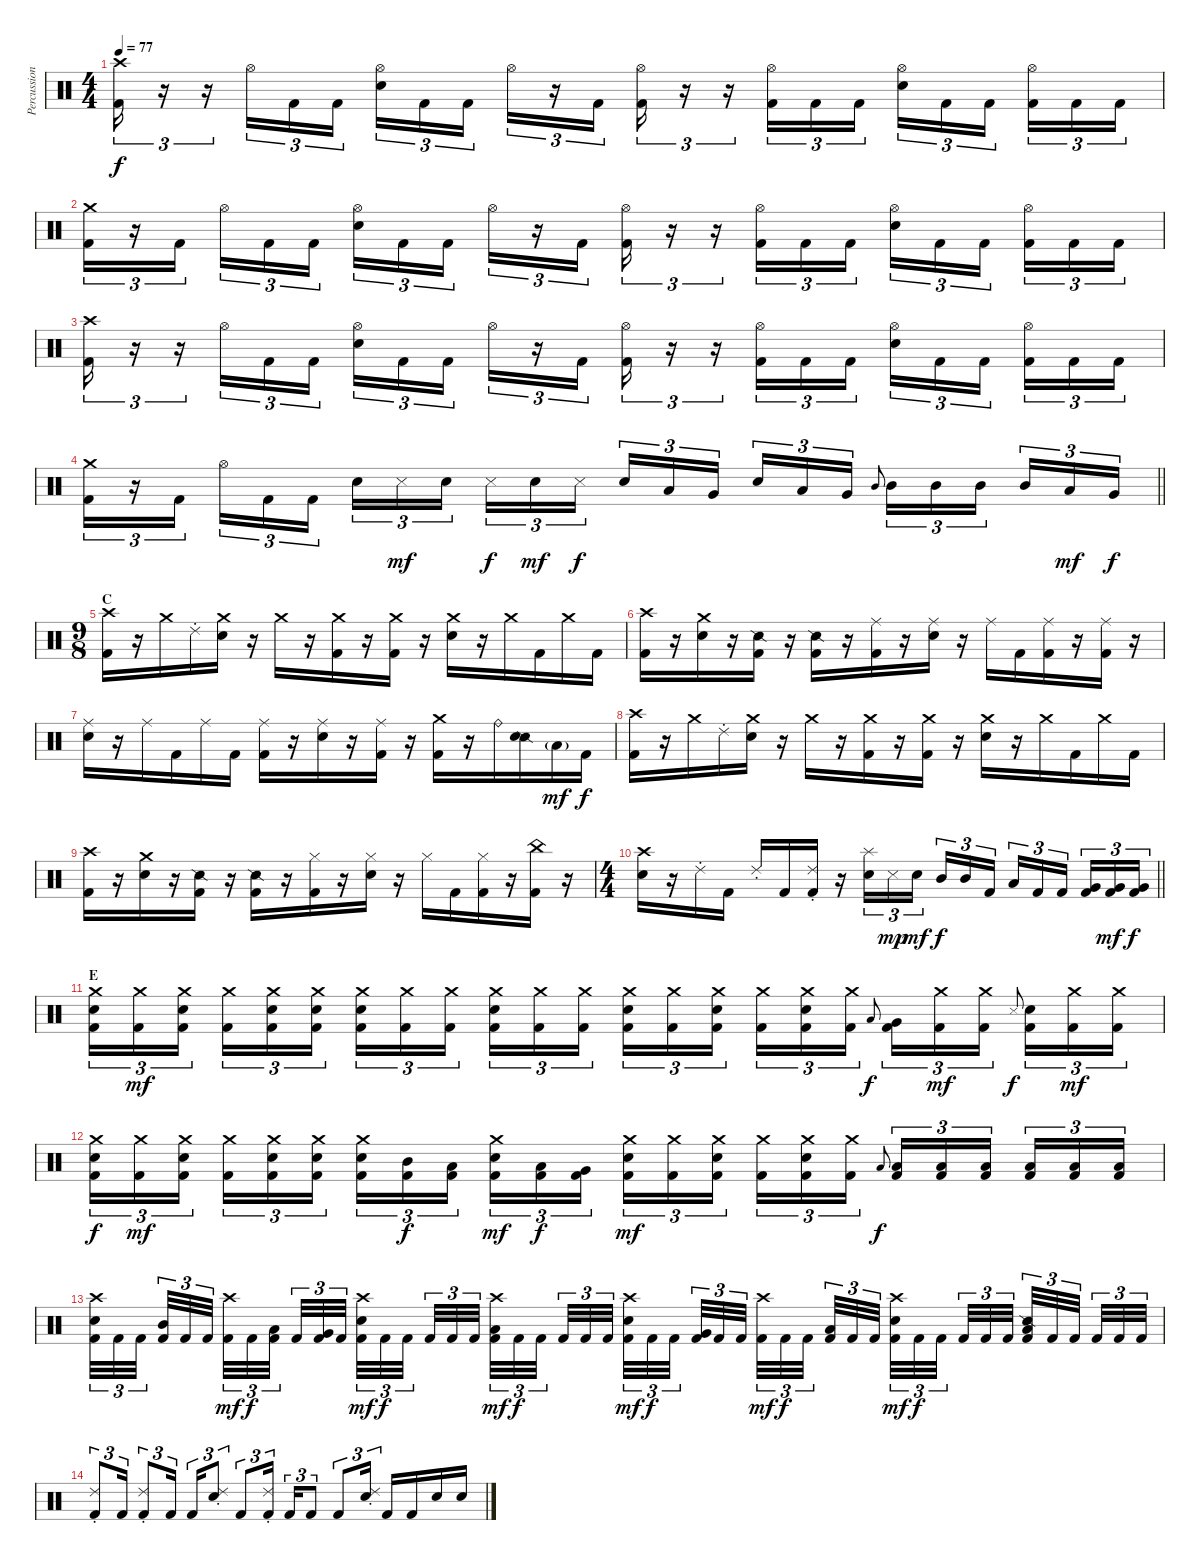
\track ("Percussion" "Percussion") {instrument percussion}
\staff {score}
\articulation defaults
\ts (4 4)
\tempo 77
\clef neutral
\ks c
("Crash high (hit)" "Kick (hit) 2").16{tu (3 2) dy f} r.16{tu (3 2)} r.16{tu (3 2)} "Hi-Hat (open)".16{tu (3 2)} "Kick (hit) 2".16{tu (3 2)} "Kick (hit) 2".16{tu (3 2)} ("Hi-Hat (open)" "Snare (hit) 2").16{tu (3 2)} "Kick (hit) 2".16{tu (3 2)} "Kick (hit) 2".16{tu (3 2) beam splitsecondary} "Hi-Hat (open)".16{tu (3 2)} r.16{tu (3 2)} "Kick (hit) 2".16{tu (3 2)} ("Hi-Hat (open)" "Kick (hit) 2").16{tu (3 2)} r.16{tu (3 2)} r.16{tu (3 2)} ("Hi-Hat (open)" "Kick (hit) 2").16{tu (3 2)} "Kick (hit) 2".16{tu (3 2)} "Kick (hit) 2".16{tu (3 2)} ("Hi-Hat (open)" "Snare (hit) 2").16{tu (3 2)} "Kick (hit) 2".16{tu (3 2)} "Kick (hit) 2".16{tu (3 2) beam splitsecondary} ("Hi-Hat (open)" "Kick (hit) 2").16{tu (3 2)} "Kick (hit) 2".16{tu (3 2)} "Kick (hit) 2".16{tu (3 2)} |
("Crash medium (hit)" "Kick (hit) 2").16{tu (3 2)} r.16{tu (3 2)} "Kick (hit) 2".16{tu (3 2) beam splitsecondary} "Hi-Hat (open)".16{tu (3 2)} "Kick (hit) 2".16{tu (3 2)} "Kick (hit) 2".16{tu (3 2)} ("Hi-Hat (open)" "Snare (hit) 2").16{tu (3 2)} "Kick (hit) 2".16{tu (3 2)} "Kick (hit) 2".16{tu (3 2) beam splitsecondary} "Hi-Hat (open)".16{tu (3 2)} r.16{tu (3 2)} "Kick (hit) 2".16{tu (3 2)} ("Hi-Hat (open)" "Kick (hit) 2").16{tu (3 2)} r.16{tu (3 2)} r.16{tu (3 2)} ("Hi-Hat (open)" "Kick (hit) 2").16{tu (3 2)} "Kick (hit) 2".16{tu (3 2)} "Kick (hit) 2".16{tu (3 2)} ("Hi-Hat (open)" "Snare (hit) 2").16{tu (3 2)} "Kick (hit) 2".16{tu (3 2)} "Kick (hit) 2".16{tu (3 2) beam splitsecondary} ("Hi-Hat (open)" "Kick (hit) 2").16{tu (3 2)} "Kick (hit) 2".16{tu (3 2)} "Kick (hit) 2".16{tu (3 2)} |
("Crash high (hit)" "Kick (hit) 2").16{tu (3 2)} r.16{tu (3 2)} r.16{tu (3 2)} "Hi-Hat (open)".16{tu (3 2)} "Kick (hit) 2".16{tu (3 2)} "Kick (hit) 2".16{tu (3 2)} ("Hi-Hat (open)" "Snare (hit) 2").16{tu (3 2)} "Kick (hit) 2".16{tu (3 2)} "Kick (hit) 2".16{tu (3 2) beam splitsecondary} "Hi-Hat (open)".16{tu (3 2)} r.16{tu (3 2)} "Kick (hit) 2".16{tu (3 2)} ("Hi-Hat (open)" "Kick (hit) 2").16{tu (3 2)} r.16{tu (3 2)} r.16{tu (3 2)} ("Hi-Hat (open)" "Kick (hit) 2").16{tu (3 2)} "Kick (hit) 2".16{tu (3 2)} "Kick (hit) 2".16{tu (3 2)} ("Hi-Hat (open)" "Snare (hit) 2").16{tu (3 2)} "Kick (hit) 2".16{tu (3 2)} "Kick (hit) 2".16{tu (3 2) beam splitsecondary} ("Hi-Hat (open)" "Kick (hit) 2").16{tu (3 2)} "Kick (hit) 2".16{tu (3 2)} "Kick (hit) 2".16{tu (3 2)} |
\barLineRight lightlight
("Crash medium (hit)" "Kick (hit) 2").16{tu (3 2)} r.16{tu (3 2)} "Kick (hit) 2".16{tu (3 2) beam splitsecondary} "Hi-Hat (open)".16{tu (3 2)} "Kick (hit) 2".16{tu (3 2)} "Kick (hit) 2".16{tu (3 2)} "Snare (hit) 2".16{tu (3 2)} "Metronome (hit)".16{tu (3 2) dy mf} "Snare (hit) 2".16{tu (3 2) beam splitsecondary} "Metronome (hit)".16{tu (3 2) dy f} "Snare (hit) 2".16{tu (3 2) dy mf} "Metronome (hit)".16{tu (3 2) dy f} "Snare (hit) 2".16{tu (3 2)} "Low Tom (hit)".16{tu (3 2)} "Very Low Tom (hit)".16{tu (3 2) beam splitsecondary} "Snare (hit) 2".16{tu (3 2)} "Low Tom (hit)".16{tu (3 2)} "Very Low Tom (hit)".16{tu (3 2)} "Mid Tom (hit)".8{gr onbeat} "Mid Tom (hit)".16{tu (3 2)} "Mid Tom (hit)".16{tu (3 2)} "Mid Tom (hit)".16{tu (3 2) beam splitsecondary} "Mid Tom (hit)".16{tu (3 2)} "Low Tom (hit)".16{tu (3 2) dy mf} "Very Low Tom (hit)".16{tu (3 2) dy f} |
\ts (9 8)
\section ("" "C")
("Crash high (hit)" "Kick (hit) 2").16 r.16 "Crash medium (hit)".16 "Ride (choke) 2".16 ("Crash medium (hit)" "Snare (hit) 2").16 r.16 "Crash medium (hit)".16 r.16 ("Crash medium (hit)" "Kick (hit) 2").16 r.16 ("Crash medium (hit)" "Kick (hit) 2").16 r.16 ("Crash medium (hit)" "Snare (hit) 2").16 r.16 "Crash medium (hit)".16 "Kick (hit) 2".16 "Crash medium (hit)".16 "Kick (hit) 2".16 |
("Crash high (hit)" "Kick (hit) 2").16 r.16 ("Crash medium (hit)" "Snare (hit) 2").16 r.16 ("Snare (side stick) 2" "Kick (hit) 2").16 r.16 ("Snare (side stick) 2" "Kick (hit) 2").16 r.16 ("Ride (middle)" "Kick (hit) 2").16 r.16 ("Ride (middle)" "Snare (hit) 2").16 r.16 "Ride (middle)".16 "Kick (hit) 2".16 ("Ride (middle)" "Kick (hit) 2").16 r.16 ("Ride (middle)" "Kick (hit) 2").16 r.16 |
("Ride (middle)" "Snare (hit) 2").16 r.16 "Ride (middle)".16 "Kick (hit) 2".16 "Ride (middle)".16 "Kick (hit) 2".16 ("Ride (middle)" "Kick (hit) 2").16 r.16 ("Ride (middle)" "Snare (hit) 2").16 r.16 ("Ride (middle)" "Kick (hit) 2").16 r.16 ("Crash medium (hit)" "Kick (hit) 2").16 r.16 "Ride (bell)".16 ("Snare (side stick) 2" "Snare (hit) 2").16 "Low Tom (hit)"{g}.16{dy mf} "Kick (hit) 2".16{dy f} |
("Crash high (hit)" "Kick (hit) 2").16 r.16 "Crash medium (hit)".16 "Ride (choke) 2".16 ("Crash medium (hit)" "Snare (hit) 2").16 r.16 "Crash medium (hit)".16 r.16 ("Crash medium (hit)" "Kick (hit) 2").16 r.16 ("Crash medium (hit)" "Kick (hit) 2").16 r.16 ("Crash medium (hit)" "Snare (hit) 2").16 r.16 "Crash medium (hit)".16 "Kick (hit) 2".16 "Crash medium (hit)".16 "Kick (hit) 2".16 |
("Crash high (hit)" "Kick (hit) 2").16 r.16 ("Crash medium (hit)" "Snare (hit) 2").16 r.16 ("Snare (side stick) 2" "Kick (hit) 2").16 r.16 ("Snare (side stick) 2" "Kick (hit) 2").16 r.16 ("Hi-Hat (closed)" "Kick (hit) 2").16 r.16 ("Hi-Hat (closed)" "Snare (hit) 2").16 r.16 "Hi-Hat (closed)".16 "Kick (hit) 2".16 ("Hi-Hat (closed)" "Kick (hit) 2").16 r.16 ("China (hit)" "Kick (hit) 2").16 r.16 |
\ts (4 4)
\barLineRight lightlight
("Crash high (hit)" "Snare (hit) 2").16 r.16 "Ride (choke) 2".16 "Kick (hit) 2".16 "Ride (choke) 2".16 "Kick (hit) 2".16 ("Ride (choke) 2" "Kick (hit) 2").16 r.16 ("Splash (hit)" "Snare (hit) 2").16{tu (3 2)} "Metronome (hit)".16{tu (3 2) dy mp} "Snare (hit) 2".16{tu (3 2) dy mf beam splitsecondary} "Mid Tom (hit)".16{tu (3 2) dy f} "Mid Tom (hit)".16{tu (3 2)} "Kick (hit) 2".16{tu (3 2)} "Low Tom (hit)".16{tu (3 2)} "Kick (hit) 2".16{tu (3 2)} "Kick (hit) 2".16{tu (3 2) beam splitsecondary} ("Very Low Tom (hit)" "Kick (hit) 2").16{tu (3 2)} ("Very Low Tom (hit)" "Kick (hit) 2").16{tu (3 2) dy mf} ("Very Low Tom (hit)" "Kick (hit) 2").16{tu (3 2) dy f} |
\section ("" "E")
("Crash medium (hit)" "Snare (hit) 2" "Kick (hit) 2").16{tu (3 2)} ("Crash medium (hit)" "Kick (hit) 2").16{tu (3 2) dy mf} ("Crash medium (hit)" "Snare (hit) 2" "Kick (hit) 2").16{tu (3 2) beam splitsecondary} ("Crash medium (hit)" "Kick (hit) 2").16{tu (3 2)} ("Crash medium (hit)" "Snare (hit) 2" "Kick (hit) 2").16{tu (3 2)} ("Crash medium (hit)" "Snare (hit) 2" "Kick (hit) 2").16{tu (3 2)} ("Crash medium (hit)" "Snare (hit) 2" "Kick (hit) 2").16{tu (3 2)} ("Crash medium (hit)" "Kick (hit) 2").16{tu (3 2)} ("Crash medium (hit)" "Kick (hit) 2").16{tu (3 2) beam splitsecondary} ("Crash medium (hit)" "Snare (hit) 2" "Kick (hit) 2").16{tu (3 2)} ("Crash medium (hit)" "Kick (hit) 2").16{tu (3 2)} ("Crash medium (hit)" "Kick (hit) 2").16{tu (3 2)} ("Crash medium (hit)" "Snare (hit) 2" "Kick (hit) 2").16{tu (3 2)} ("Crash medium (hit)" "Kick (hit) 2").16{tu (3 2)} ("Crash medium (hit)" "Snare (hit) 2" "Kick (hit) 2").16{tu (3 2) beam splitsecondary} ("Crash medium (hit)" "Kick (hit) 2").16{tu (3 2)} ("Crash medium (hit)" "Snare (hit) 2" "Kick (hit) 2").16{tu (3 2)} ("Crash medium (hit)" "Kick (hit) 2").16{tu (3 2)} "Low Tom (hit)".8{gr onbeat dy f} ("Very Low Tom (hit)" "Kick (hit) 2").16{tu (3 2)} ("Crash medium (hit)" "Kick (hit) 2").16{tu (3 2) dy mf} ("Crash medium (hit)" "Kick (hit) 2").16{tu (3 2)} "Metronome (hit)".8{gr onbeat dy f beam splitsecondary} ("Snare (hit) 2" "Kick (hit) 2").16{tu (3 2)} ("Crash medium (hit)" "Kick (hit) 2").16{tu (3 2) dy mf} ("Crash medium (hit)" "Kick (hit) 2").16{tu (3 2)} |
("Crash medium (hit)" "Snare (hit) 2" "Kick (hit) 2").16{tu (3 2) dy f} ("Crash medium (hit)" "Kick (hit) 2").16{tu (3 2) dy mf} ("Crash medium (hit)" "Snare (hit) 2" "Kick (hit) 2").16{tu (3 2) beam splitsecondary} ("Crash medium (hit)" "Kick (hit) 2").16{tu (3 2)} ("Crash medium (hit)" "Snare (hit) 2" "Kick (hit) 2").16{tu (3 2)} ("Crash medium (hit)" "Snare (hit) 2" "Kick (hit) 2").16{tu (3 2)} ("Crash medium (hit)" "Snare (hit) 2" "Kick (hit) 2").16{tu (3 2)} ("Mid Tom (hit)" "Kick (hit) 2").16{tu (3 2) dy f} ("Low Tom (hit)" "Kick (hit) 2").16{tu (3 2) beam splitsecondary} ("Crash medium (hit)" "Snare (hit) 2" "Kick (hit) 2").16{tu (3 2) dy mf} ("Low Tom (hit)" "Kick (hit) 2").16{tu (3 2) dy f} ("Very Low Tom (hit)" "Kick (hit) 2").16{tu (3 2)} ("Crash medium (hit)" "Snare (hit) 2" "Kick (hit) 2").16{tu (3 2) dy mf} ("Crash medium (hit)" "Kick (hit) 2").16{tu (3 2)} ("Crash medium (hit)" "Snare (hit) 2" "Kick (hit) 2").16{tu (3 2) beam splitsecondary} ("Crash medium (hit)" "Kick (hit) 2").16{tu (3 2)} ("Crash medium (hit)" "Snare (hit) 2" "Kick (hit) 2").16{tu (3 2)} ("Crash medium (hit)" "Kick (hit) 2").16{tu (3 2)} "Low Tom (hit)".8{gr onbeat dy f} ("Low Tom (hit)" "Kick (hit) 2").16{tu (3 2)} ("Low Tom (hit)" "Kick (hit) 2").16{tu (3 2)} ("Low Tom (hit)" "Kick (hit) 2").16{tu (3 2) beam splitsecondary} ("Low Tom (hit)" "Kick (hit) 2").16{tu (3 2)} ("Low Tom (hit)" "Kick (hit) 2").16{tu (3 2)} ("Low Tom (hit)" "Kick (hit) 2").16{tu (3 2)} |
("Crash high (hit)" "Snare (hit) 2" "Kick (hit) 2").32{tu (3 2)} "Kick (hit) 2".32{tu (3 2)} "Kick (hit) 2".32{tu (3 2) beam splitsecondary} ("Mid Tom (hit)" "Kick (hit) 2").32{tu (3 2)} "Kick (hit) 2".32{tu (3 2)} "Kick (hit) 2".32{tu (3 2) beam splitsecondary} ("Crash high (hit)" "Kick (hit) 2").32{tu (3 2) dy mf} "Kick (hit) 2".32{tu (3 2) dy f} ("Low Tom (hit)" "Kick (hit) 2").32{tu (3 2) beam splitsecondary} "Kick (hit) 2".32{tu (3 2)} ("Very Low Tom (hit)" "Kick (hit) 2").32{tu (3 2)} "Kick (hit) 2".32{tu (3 2)} ("Crash high (hit)" "Snare (hit) 2" "Kick (hit) 2").32{tu (3 2) dy mf} "Kick (hit) 2".32{tu (3 2) dy f} "Kick (hit) 2".32{tu (3 2) beam splitsecondary} "Kick (hit) 2".32{tu (3 2)} "Kick (hit) 2".32{tu (3 2)} "Kick (hit) 2".32{tu (3 2) beam splitsecondary} ("Crash high (hit)" "Low Tom (hit)" "Kick (hit) 2").32{tu (3 2) dy mf} "Kick (hit) 2".32{tu (3 2) dy f} "Kick (hit) 2".32{tu (3 2) beam splitsecondary} "Kick (hit) 2".32{tu (3 2)} "Kick (hit) 2".32{tu (3 2)} "Kick (hit) 2".32{tu (3 2)} ("Crash high (hit)" "Snare (hit) 2" "Kick (hit) 2").32{tu (3 2) dy mf} "Kick (hit) 2".32{tu (3 2) dy f} "Kick (hit) 2".32{tu (3 2) beam splitsecondary} ("Very Low Tom (hit)" "Kick (hit) 2").32{tu (3 2)} "Kick (hit) 2".32{tu (3 2)} "Kick (hit) 2".32{tu (3 2) beam splitsecondary} ("Crash high (hit)" "Kick (hit) 2").32{tu (3 2) dy mf} "Kick (hit) 2".32{tu (3 2) dy f} "Kick (hit) 2".32{tu (3 2) beam splitsecondary} ("Low Tom (hit)" "Kick (hit) 2").32{tu (3 2)} "Kick (hit) 2".32{tu (3 2)} "Kick (hit) 2".32{tu (3 2)} ("Crash high (hit)" "Snare (hit) 2" "Kick (hit) 2").32{tu (3 2) dy mf} "Kick (hit) 2".32{tu (3 2) dy f} "Kick (hit) 2".32{tu (3 2) beam splitsecondary} "Kick (hit) 2".32{tu (3 2)} "Kick (hit) 2".32{tu (3 2)} "Kick (hit) 2".32{tu (3 2) beam splitsecondary} ("Snare (side stick) 2" "Low Floor Tom (hit)" "Kick (hit) 2").32{tu (3 2)} "Kick (hit) 2".32{tu (3 2)} "Kick (hit) 2".32{tu (3 2) beam splitsecondary} "Kick (hit) 2".32{tu (3 2)} "Kick (hit) 2".32{tu (3 2)} "Kick (hit) 2".32{tu (3 2)} |
("Ride (choke) 2" "Kick (hit) 2").8{tu (3 2)} "Kick (hit) 2".16{tu (3 2)} ("Ride (choke) 2" "Kick (hit) 2").8{tu (3 2)} "Kick (hit) 2".16{tu (3 2)} "Kick (hit) 2".16{tu (3 2)} ("Ride (choke) 2" "Snare (hit) 2").8{tu (3 2)} "Kick (hit) 2".8{tu (3 2)} ("Ride (choke) 2" "Kick (hit) 2").16{tu (3 2)} "Kick (hit) 2".16{tu (3 2)} "Kick (hit) 2".8{tu (3 2)} "Kick (hit) 2".8{tu (3 2)} ("Ride (choke) 2" "Snare (hit) 2").16{tu (3 2)} "Kick (hit) 2".16 "Kick (hit) 2".16 "Snare (hit) 2".16 "Snare (hit) 2".16
